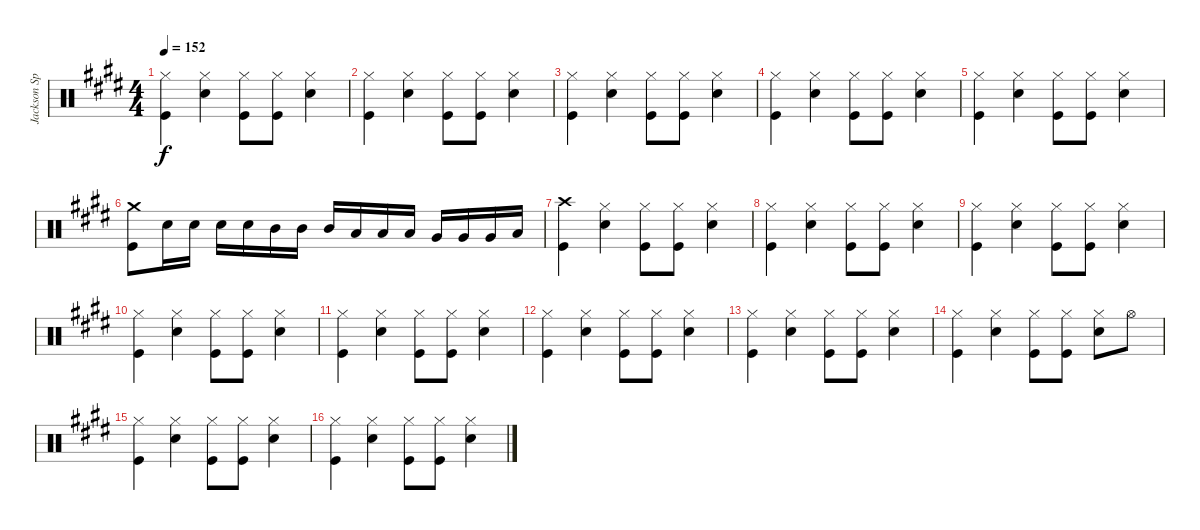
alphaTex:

\track ("Jackson Spiers Drums" "Jackson Sp") {instrument percussion}
\staff {score}
\articulation defaults
\ts (4 4)
\tempo 152
\clef neutral
\ks c#minor
("Hi-Hat (closed)" "Kick (hit)").4{dy f} ("Hi-Hat (closed)" "Snare (hit) 2").4 ("Hi-Hat (closed)" "Kick (hit)").8 ("Hi-Hat (closed)" "Kick (hit)").8 ("Hi-Hat (closed)" "Snare (hit) 2").4 |
("Hi-Hat (closed)" "Kick (hit)").4 ("Hi-Hat (closed)" "Snare (hit) 2").4 ("Hi-Hat (closed)" "Kick (hit)").8 ("Hi-Hat (closed)" "Kick (hit)").8 ("Hi-Hat (closed)" "Snare (hit) 2").4 |
("Hi-Hat (closed)" "Kick (hit)").4 ("Hi-Hat (closed)" "Snare (hit) 2").4 ("Hi-Hat (closed)" "Kick (hit)").8 ("Hi-Hat (closed)" "Kick (hit)").8 ("Hi-Hat (closed)" "Snare (hit) 2").4 |
("Hi-Hat (closed)" "Kick (hit)").4 ("Hi-Hat (closed)" "Snare (hit) 2").4 ("Hi-Hat (closed)" "Kick (hit)").8 ("Hi-Hat (closed)" "Kick (hit)").8 ("Hi-Hat (closed)" "Snare (hit) 2").4 |
("Hi-Hat (closed)" "Kick (hit)").4 ("Hi-Hat (closed)" "Snare (hit) 2").4 ("Hi-Hat (closed)" "Kick (hit)").8 ("Hi-Hat (closed)" "Kick (hit)").8 ("Hi-Hat (closed)" "Snare (hit) 2").4 |
("Crash medium (hit)" "Kick (hit)").8 "Snare (hit) 2".16 "Snare (hit) 2".16 "Snare (hit) 2".16 "Snare (hit) 2".16 "Mid Tom (hit)".16 "Mid Tom (hit)".16 "Mid Tom (hit)".16 "Low Tom (hit)".16 "Low Tom (hit)".16 "Low Tom (hit)".16 "Very Low Tom (hit)".16 "Very Low Tom (hit)".16 "Very Low Tom (hit)".16 "Low Floor Tom (hit)".16 |
("Crash high (hit)" "Kick (hit)").4 ("Hi-Hat (closed)" "Snare (hit) 2").4 ("Hi-Hat (closed)" "Kick (hit)").8 ("Hi-Hat (closed)" "Kick (hit)").8 ("Hi-Hat (closed)" "Snare (hit) 2").4 |
("Hi-Hat (closed)" "Kick (hit)").4 ("Hi-Hat (closed)" "Snare (hit) 2").4 ("Hi-Hat (closed)" "Kick (hit)").8 ("Hi-Hat (closed)" "Kick (hit)").8 ("Hi-Hat (closed)" "Snare (hit) 2").4 |
("Hi-Hat (closed)" "Kick (hit)").4 ("Hi-Hat (closed)" "Snare (hit) 2").4 ("Hi-Hat (closed)" "Kick (hit)").8 ("Hi-Hat (closed)" "Kick (hit)").8 ("Hi-Hat (closed)" "Snare (hit) 2").4 |
("Hi-Hat (closed)" "Kick (hit)").4 ("Hi-Hat (closed)" "Snare (hit) 2").4 ("Hi-Hat (closed)" "Kick (hit)").8 ("Hi-Hat (closed)" "Kick (hit)").8 ("Hi-Hat (closed)" "Snare (hit) 2").4 |
("Hi-Hat (closed)" "Kick (hit)").4 ("Hi-Hat (closed)" "Snare (hit) 2").4 ("Hi-Hat (closed)" "Kick (hit)").8 ("Hi-Hat (closed)" "Kick (hit)").8 ("Hi-Hat (closed)" "Snare (hit) 2").4 |
("Hi-Hat (closed)" "Kick (hit)").4 ("Hi-Hat (closed)" "Snare (hit) 2").4 ("Hi-Hat (closed)" "Kick (hit)").8 ("Hi-Hat (closed)" "Kick (hit)").8 ("Hi-Hat (closed)" "Snare (hit) 2").4 |
("Hi-Hat (closed)" "Kick (hit)").4 ("Hi-Hat (closed)" "Snare (hit) 2").4 ("Hi-Hat (closed)" "Kick (hit)").8 ("Hi-Hat (closed)" "Kick (hit)").8 ("Hi-Hat (closed)" "Snare (hit) 2").4 |
("Hi-Hat (closed)" "Kick (hit)").4 ("Hi-Hat (closed)" "Snare (hit) 2").4 ("Hi-Hat (closed)" "Kick (hit)").8 ("Hi-Hat (closed)" "Kick (hit)").8 ("Hi-Hat (closed)" "Snare (hit) 2").8 "Hi-Hat (open)".8 |
("Hi-Hat (closed)" "Kick (hit)").4 ("Hi-Hat (closed)" "Snare (hit) 2").4 ("Hi-Hat (closed)" "Kick (hit)").8 ("Hi-Hat (closed)" "Kick (hit)").8 ("Hi-Hat (closed)" "Snare (hit) 2").4 |
("Hi-Hat (closed)" "Kick (hit)").4 ("Hi-Hat (closed)" "Snare (hit) 2").4 ("Hi-Hat (closed)" "Kick (hit)").8 ("Hi-Hat (closed)" "Kick (hit)").8 ("Hi-Hat (closed)" "Snare (hit) 2").4
